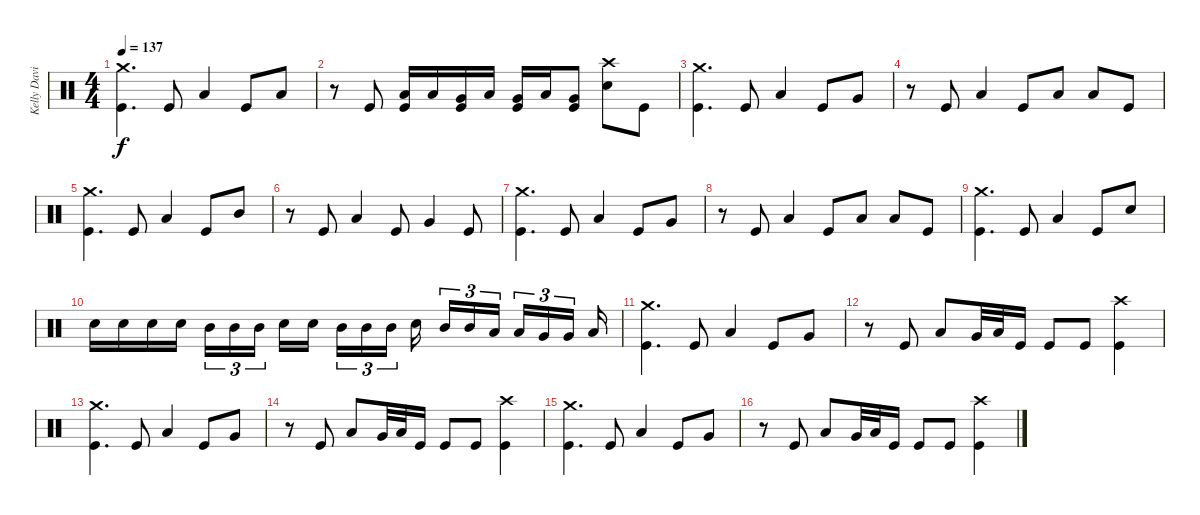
\track ("Kelly David Smith" "Kelly Davi") {instrument percussion}
\staff {score}
\articulation defaults
\ts (4 4)
\tempo 137
\clef neutral
\ks c
("Crash medium (hit)" "Kick (hit)").4{d dy f} "Kick (hit)".8 "Low Tom (hit)".4 "Kick (hit)".8 "Low Tom (hit)".8 |
r.8 "Kick (hit)".8 ("Low Tom (hit)" "Kick (hit)").16 "Low Floor Tom (hit)".16 ("Very Low Tom (hit)" "Kick (hit)").16 "Low Floor Tom (hit)".16 ("Very Low Tom (hit)" "Kick (hit)").16 "Low Floor Tom (hit)".16 ("Very Low Tom (hit)" "Kick (hit)").8 ("Crash high (hit)" "Electric Snare (hit)").8 "Kick (hit)".8 |
("Crash medium (hit)" "Kick (hit)").4{d} "Kick (hit)".8 "Low Tom (hit)".4 "Kick (hit)".8 "Very Low Tom (hit)".8 |
r.8 "Kick (hit)".8 "Low Floor Tom (hit)".4 "Kick (hit)".8 "Low Tom (hit)".8 "Low Tom (hit)".8 "Kick (hit)".8 |
("Crash medium (hit)" "Kick (hit)").4{d} "Kick (hit)".8 "Low Tom (hit)".4 "Kick (hit)".8 "Mid Tom (hit)".8 |
r.8 "Kick (hit)".8 "Low Tom (hit)".4 "Kick (hit)".8 "Very Low Tom (hit)".4 "Kick (hit)".8 |
("Crash medium (hit)" "Kick (hit)").4{d} "Kick (hit)".8 "Low Tom (hit)".4 "Kick (hit)".8 "Very Low Tom (hit)".8 |
r.8 "Kick (hit)".8 "Low Floor Tom (hit)".4 "Kick (hit)".8 "Low Tom (hit)".8 "Low Tom (hit)".8 "Kick (hit)".8 |
("Crash medium (hit)" "Kick (hit)").4{d} "Kick (hit)".8 "Low Tom (hit)".4 "Kick (hit)".8 "Electric Snare (hit)".8 |
"Electric Snare (hit)".16 "Electric Snare (hit)".16 "Electric Snare (hit)".16 "Electric Snare (hit)".16 "Mid Tom (hit)".16{tu (3 2)} "Mid Tom (hit)".16{tu (3 2)} "Mid Tom (hit)".16{tu (3 2) beam splitsecondary} "Electric Snare (hit)".16 "Electric Snare (hit)".16 "Mid Tom (hit)".16{tu (3 2)} "Mid Tom (hit)".16{tu (3 2)} "Mid Tom (hit)".16{tu (3 2) beam splitsecondary} "Electric Snare (hit)".16{beam splitsecondary} "Mid Tom (hit)".16{tu (3 2)} "Mid Tom (hit)".16{tu (3 2)} "Low Tom (hit)".16{tu (3 2) beam splitsecondary} "Low Tom (hit)".16{tu (3 2)} "Very Low Tom (hit)".16{tu (3 2)} "Very Low Tom (hit)".16{tu (3 2) beam splitsecondary} "Low Floor Tom (hit)".16 |
("Crash medium (hit)" "Kick (hit)").4{d} "Kick (hit)".8 "Low Tom (hit)".4 "Kick (hit)".8 "Very Low Tom (hit)".8 |
r.8 "Kick (hit)".8 "Low Floor Tom (hit)".8 "Very Low Tom (hit)".32 "Low Floor Tom (hit)".32 "Kick (hit)".16 "Kick (hit)".8 "Kick (hit)".8 ("Crash high (hit)" "Kick (hit)").4 |
("Crash medium (hit)" "Kick (hit)").4{d} "Kick (hit)".8 "Low Tom (hit)".4 "Kick (hit)".8 "Very Low Tom (hit)".8 |
r.8 "Kick (hit)".8 "Low Floor Tom (hit)".8 "Very Low Tom (hit)".32 "Low Floor Tom (hit)".32 "Kick (hit)".16 "Kick (hit)".8 "Kick (hit)".8 ("Crash high (hit)" "Kick (hit)").4 |
("Crash medium (hit)" "Kick (hit)").4{d} "Kick (hit)".8 "Low Tom (hit)".4 "Kick (hit)".8 "Very Low Tom (hit)".8 |
r.8 "Kick (hit)".8 "Low Floor Tom (hit)".8 "Very Low Tom (hit)".32 "Low Floor Tom (hit)".32 "Kick (hit)".16 "Kick (hit)".8 "Kick (hit)".8 ("Crash high (hit)" "Kick (hit)").4
